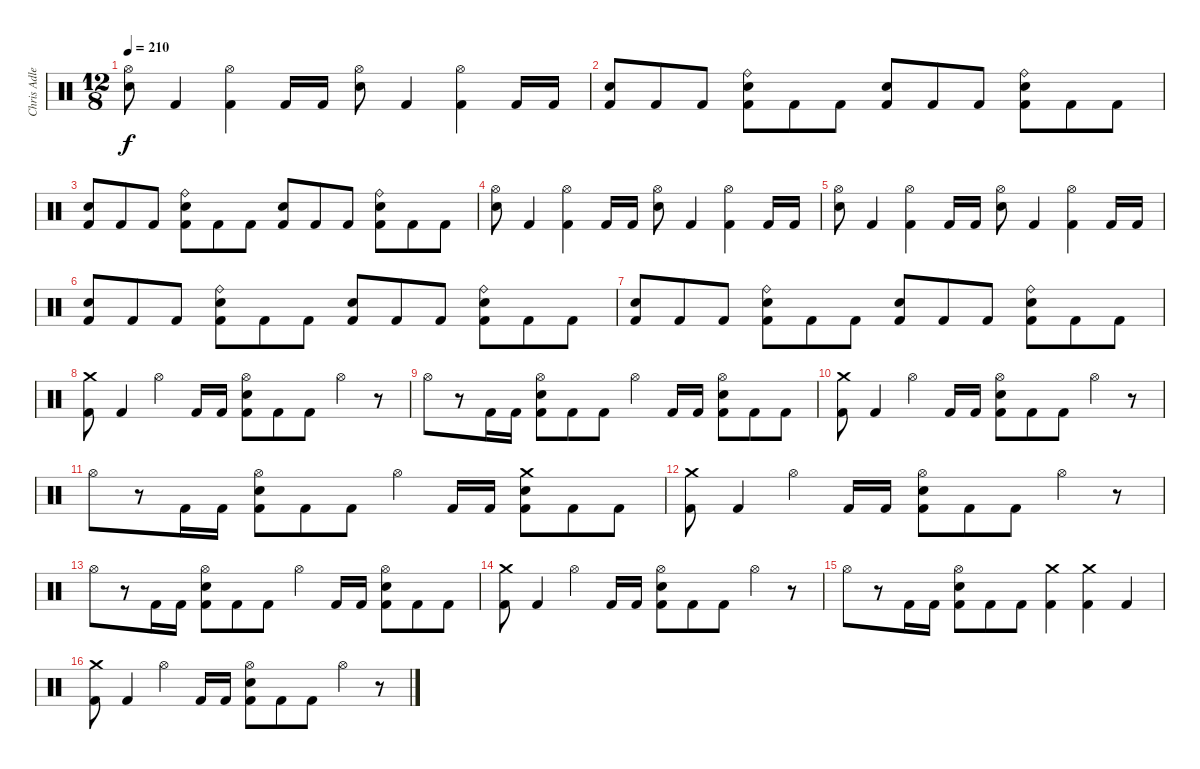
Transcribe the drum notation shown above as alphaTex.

\track ("Chris Adler" "Chris Adle") {instrument percussion}
\staff {score}
\articulation defaults
\ts (12 8)
\tempo 210
\clef neutral
\ks c
("Hi-Hat (open)" "Snare (hit) 2").8{dy f} "Kick (hit) 2".4 ("Hi-Hat (open)" "Kick (hit) 2").4 "Kick (hit) 2".16 "Kick (hit) 2".16 ("Hi-Hat (open)" "Snare (hit) 2").8 "Kick (hit) 2".4 ("Hi-Hat (open)" "Kick (hit) 2").4 "Kick (hit) 2".16 "Kick (hit) 2".16 |
("Snare (hit) 2" "Kick (hit) 2").8 "Kick (hit) 2".8 "Kick (hit) 2".8 ("Ride (bell)" "Snare (hit) 2" "Kick (hit) 2").8 "Kick (hit) 2".8 "Kick (hit) 2".8 ("Snare (hit) 2" "Kick (hit) 2").8 "Kick (hit) 2".8 "Kick (hit) 2".8 ("Ride (bell)" "Snare (hit) 2" "Kick (hit) 2").8 "Kick (hit) 2".8 "Kick (hit) 2".8 |
("Snare (hit) 2" "Kick (hit) 2").8 "Kick (hit) 2".8 "Kick (hit) 2".8 ("Ride (bell)" "Snare (hit) 2" "Kick (hit) 2").8 "Kick (hit) 2".8 "Kick (hit) 2".8 ("Snare (hit) 2" "Kick (hit) 2").8 "Kick (hit) 2".8 "Kick (hit) 2".8 ("Ride (bell)" "Snare (hit) 2" "Kick (hit) 2").8 "Kick (hit) 2".8 "Kick (hit) 2".8 |
("Hi-Hat (open)" "Snare (hit) 2").8 "Kick (hit) 2".4 ("Hi-Hat (open)" "Kick (hit) 2").4 "Kick (hit) 2".16 "Kick (hit) 2".16 ("Hi-Hat (open)" "Snare (hit) 2").8 "Kick (hit) 2".4 ("Hi-Hat (open)" "Kick (hit) 2").4 "Kick (hit) 2".16 "Kick (hit) 2".16 |
("Hi-Hat (open)" "Snare (hit) 2").8 "Kick (hit) 2".4 ("Hi-Hat (open)" "Kick (hit) 2").4 "Kick (hit) 2".16 "Kick (hit) 2".16 ("Hi-Hat (open)" "Snare (hit) 2").8 "Kick (hit) 2".4 ("Hi-Hat (open)" "Kick (hit) 2").4 "Kick (hit) 2".16 "Kick (hit) 2".16 |
("Snare (hit) 2" "Kick (hit) 2").8 "Kick (hit) 2".8 "Kick (hit) 2".8 ("Ride (bell)" "Snare (hit) 2" "Kick (hit) 2").8 "Kick (hit) 2".8 "Kick (hit) 2".8 ("Snare (hit) 2" "Kick (hit) 2").8 "Kick (hit) 2".8 "Kick (hit) 2".8 ("Ride (bell)" "Snare (hit) 2" "Kick (hit) 2").8 "Kick (hit) 2".8 "Kick (hit) 2".8 |
("Snare (hit) 2" "Kick (hit) 2").8 "Kick (hit) 2".8 "Kick (hit) 2".8 ("Ride (bell)" "Snare (hit) 2" "Kick (hit) 2").8 "Kick (hit) 2".8 "Kick (hit) 2".8 ("Snare (hit) 2" "Kick (hit) 2").8 "Kick (hit) 2".8 "Kick (hit) 2".8 ("Ride (bell)" "Snare (hit) 2" "Kick (hit) 2").8 "Kick (hit) 2".8 "Kick (hit) 2".8 |
("Crash medium (hit)" "Kick (hit) 2").8 "Kick (hit) 2".4 "Hi-Hat (open)".4 "Kick (hit) 2".16 "Kick (hit) 2".16 ("Hi-Hat (open)" "Snare (hit) 2" "Kick (hit) 2").8 "Kick (hit) 2".8 "Kick (hit) 2".8 "Hi-Hat (open)".4 r.8 |
"Hi-Hat (open)".8 r.8 "Kick (hit) 2".16 "Kick (hit) 2".16 ("Hi-Hat (open)" "Snare (hit) 2" "Kick (hit) 2").8 "Kick (hit) 2".8 "Kick (hit) 2".8 "Hi-Hat (open)".4 "Kick (hit) 2".16 "Kick (hit) 2".16 ("Hi-Hat (open)" "Snare (hit) 2" "Kick (hit) 2").8 "Kick (hit) 2".8 "Kick (hit) 2".8 |
("Crash medium (hit)" "Kick (hit) 2").8 "Kick (hit) 2".4 "Hi-Hat (open)".4 "Kick (hit) 2".16 "Kick (hit) 2".16 ("Hi-Hat (open)" "Snare (hit) 2" "Kick (hit) 2").8 "Kick (hit) 2".8 "Kick (hit) 2".8 "Hi-Hat (open)".4 r.8 |
"Hi-Hat (open)".8 r.8 "Kick (hit) 2".16 "Kick (hit) 2".16 ("Hi-Hat (open)" "Snare (hit) 2" "Kick (hit) 2").8 "Kick (hit) 2".8 "Kick (hit) 2".8 "Hi-Hat (open)".4 "Kick (hit) 2".16 "Kick (hit) 2".16 ("Crash medium (hit)" "Snare (hit) 2" "Kick (hit) 2").8 "Kick (hit) 2".8 "Kick (hit) 2".8 |
("Crash medium (hit)" "Kick (hit) 2").8 "Kick (hit) 2".4 "Hi-Hat (open)".4 "Kick (hit) 2".16 "Kick (hit) 2".16 ("Hi-Hat (open)" "Snare (hit) 2" "Kick (hit) 2").8 "Kick (hit) 2".8 "Kick (hit) 2".8 "Hi-Hat (open)".4 r.8 |
"Hi-Hat (open)".8 r.8 "Kick (hit) 2".16 "Kick (hit) 2".16 ("Hi-Hat (open)" "Snare (hit) 2" "Kick (hit) 2").8 "Kick (hit) 2".8 "Kick (hit) 2".8 "Hi-Hat (open)".4 "Kick (hit) 2".16 "Kick (hit) 2".16 ("Hi-Hat (open)" "Snare (hit) 2" "Kick (hit) 2").8 "Kick (hit) 2".8 "Kick (hit) 2".8 |
("Crash medium (hit)" "Kick (hit) 2").8 "Kick (hit) 2".4 "Hi-Hat (open)".4 "Kick (hit) 2".16 "Kick (hit) 2".16 ("Hi-Hat (open)" "Snare (hit) 2" "Kick (hit) 2").8 "Kick (hit) 2".8 "Kick (hit) 2".8 "Hi-Hat (open)".4 r.8 |
"Hi-Hat (open)".8 r.8 "Kick (hit) 2".16 "Kick (hit) 2".16 ("Hi-Hat (open)" "Snare (hit) 2" "Kick (hit) 2").8 "Kick (hit) 2".8 "Kick (hit) 2".8 ("Crash medium (hit)" "Kick (hit) 2").4 ("Crash medium (hit)" "Kick (hit) 2").4 "Kick (hit) 2".4 |
("Crash medium (hit)" "Kick (hit) 2").8 "Kick (hit) 2".4 "Hi-Hat (open)".4 "Kick (hit) 2".16 "Kick (hit) 2".16 ("Hi-Hat (open)" "Snare (hit) 2" "Kick (hit) 2").8 "Kick (hit) 2".8 "Kick (hit) 2".8 "Hi-Hat (open)".4 r.8
